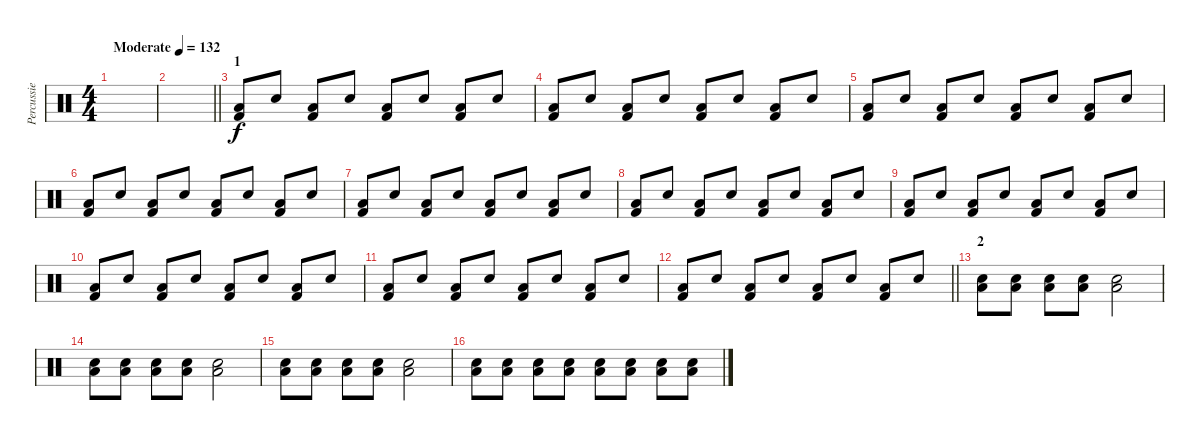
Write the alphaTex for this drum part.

\track ("Percussie" "Percussie") {instrument percussion}
\staff {score}
\articulation defaults
\ts (4 4)
\tempo (132 "Moderate")
\clef neutral
\ks c
|
\barLineRight lightlight
|
\section ("" "1")
("Low Floor Tom (hit)" "Kick (hit) 2").8 "Snare (hit) 2".8 ("Low Floor Tom (hit)" "Kick (hit) 2").8 "Snare (hit) 2".8 ("Low Floor Tom (hit)" "Kick (hit) 2").8 "Snare (hit) 2".8 ("Low Floor Tom (hit)" "Kick (hit) 2").8 "Snare (hit) 2".8 |
("Low Floor Tom (hit)" "Kick (hit) 2").8 "Snare (hit) 2".8 ("Low Floor Tom (hit)" "Kick (hit) 2").8 "Snare (hit) 2".8 ("Low Floor Tom (hit)" "Kick (hit) 2").8 "Snare (hit) 2".8 ("Low Floor Tom (hit)" "Kick (hit) 2").8 "Snare (hit) 2".8 |
("Low Floor Tom (hit)" "Kick (hit) 2").8 "Snare (hit) 2".8 ("Low Floor Tom (hit)" "Kick (hit) 2").8 "Snare (hit) 2".8 ("Low Floor Tom (hit)" "Kick (hit) 2").8 "Snare (hit) 2".8 ("Low Floor Tom (hit)" "Kick (hit) 2").8 "Snare (hit) 2".8 |
("Low Floor Tom (hit)" "Kick (hit) 2").8 "Snare (hit) 2".8 ("Low Floor Tom (hit)" "Kick (hit) 2").8 "Snare (hit) 2".8 ("Low Floor Tom (hit)" "Kick (hit) 2").8 "Snare (hit) 2".8 ("Low Floor Tom (hit)" "Kick (hit) 2").8 "Snare (hit) 2".8 |
("Low Floor Tom (hit)" "Kick (hit) 2").8 "Snare (hit) 2".8 ("Low Floor Tom (hit)" "Kick (hit) 2").8 "Snare (hit) 2".8 ("Low Floor Tom (hit)" "Kick (hit) 2").8 "Snare (hit) 2".8 ("Low Floor Tom (hit)" "Kick (hit) 2").8 "Snare (hit) 2".8 |
("Low Floor Tom (hit)" "Kick (hit) 2").8 "Snare (hit) 2".8 ("Low Floor Tom (hit)" "Kick (hit) 2").8 "Snare (hit) 2".8 ("Low Floor Tom (hit)" "Kick (hit) 2").8 "Snare (hit) 2".8 ("Low Floor Tom (hit)" "Kick (hit) 2").8 "Snare (hit) 2".8 |
("Low Floor Tom (hit)" "Kick (hit) 2").8 "Snare (hit) 2".8 ("Low Floor Tom (hit)" "Kick (hit) 2").8 "Snare (hit) 2".8 ("Low Floor Tom (hit)" "Kick (hit) 2").8 "Snare (hit) 2".8 ("Low Floor Tom (hit)" "Kick (hit) 2").8 "Snare (hit) 2".8 |
("Low Floor Tom (hit)" "Kick (hit) 2").8 "Snare (hit) 2".8 ("Low Floor Tom (hit)" "Kick (hit) 2").8 "Snare (hit) 2".8 ("Low Floor Tom (hit)" "Kick (hit) 2").8 "Snare (hit) 2".8 ("Low Floor Tom (hit)" "Kick (hit) 2").8 "Snare (hit) 2".8 |
("Low Floor Tom (hit)" "Kick (hit) 2").8 "Snare (hit) 2".8 ("Low Floor Tom (hit)" "Kick (hit) 2").8 "Snare (hit) 2".8 ("Low Floor Tom (hit)" "Kick (hit) 2").8 "Snare (hit) 2".8 ("Low Floor Tom (hit)" "Kick (hit) 2").8 "Snare (hit) 2".8 |
\barLineRight lightlight
("Low Floor Tom (hit)" "Kick (hit) 2").8 "Snare (hit) 2".8 ("Low Floor Tom (hit)" "Kick (hit) 2").8 "Snare (hit) 2".8 ("Low Floor Tom (hit)" "Kick (hit) 2").8 "Snare (hit) 2".8 ("Low Floor Tom (hit)" "Kick (hit) 2").8 "Snare (hit) 2".8 |
\section ("" "2")
("Low Floor Tom (hit)" "Snare (hit) 2").8 ("Low Floor Tom (hit)" "Snare (hit) 2").8 ("Low Floor Tom (hit)" "Snare (hit) 2").8 ("Low Floor Tom (hit)" "Snare (hit) 2").8 ("Low Floor Tom (hit)" "Snare (hit) 2").2 |
("Low Floor Tom (hit)" "Snare (hit) 2").8 ("Low Floor Tom (hit)" "Snare (hit) 2").8 ("Low Floor Tom (hit)" "Snare (hit) 2").8 ("Low Floor Tom (hit)" "Snare (hit) 2").8 ("Low Floor Tom (hit)" "Snare (hit) 2").2 |
("Low Floor Tom (hit)" "Snare (hit) 2").8 ("Low Floor Tom (hit)" "Snare (hit) 2").8 ("Low Floor Tom (hit)" "Snare (hit) 2").8 ("Low Floor Tom (hit)" "Snare (hit) 2").8 ("Low Floor Tom (hit)" "Snare (hit) 2").2 |
("Low Floor Tom (hit)" "Snare (hit) 2").8 ("Low Floor Tom (hit)" "Snare (hit) 2").8 ("Low Floor Tom (hit)" "Snare (hit) 2").8 ("Low Floor Tom (hit)" "Snare (hit) 2").8 ("Low Floor Tom (hit)" "Snare (hit) 2").8 ("Low Floor Tom (hit)" "Snare (hit) 2").8 ("Low Floor Tom (hit)" "Snare (hit) 2").8 ("Low Floor Tom (hit)" "Snare (hit) 2").8
